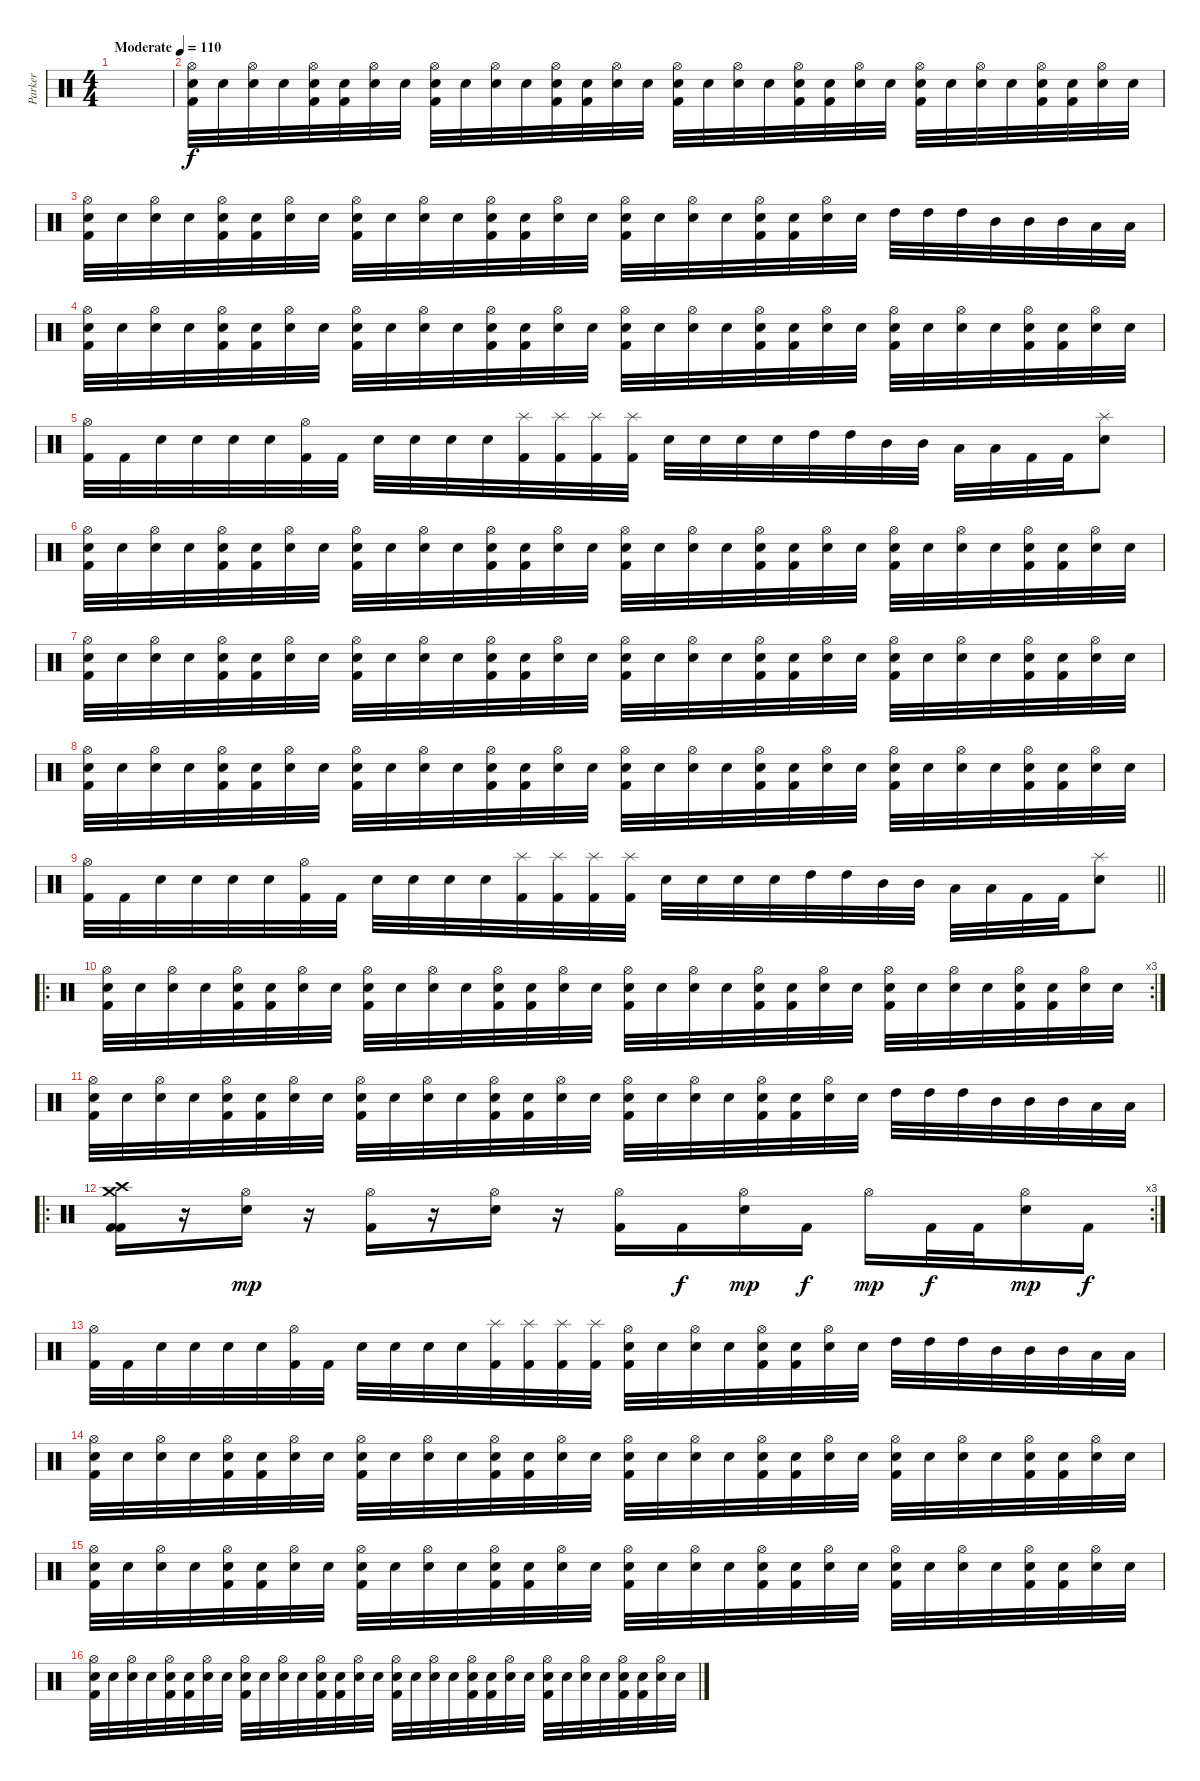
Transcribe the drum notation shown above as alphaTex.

\track ("Parker" "Parker") {instrument percussion}
\staff {score}
\articulation defaults
\ts (4 4)
\tempo (110 "Moderate")
\clef neutral
\ks c
|
("Hi-Hat (open)" "Kick (hit) 2" "Snare (hit)").32 "Snare (hit)".32 ("Hi-Hat (open)" "Electric Snare (hit)").32 "Snare (hit)".32 ("Hi-Hat (open)" "Kick (hit) 2" "Snare (hit)").32 ("Kick (hit) 2" "Snare (hit)").32 ("Hi-Hat (open)" "Electric Snare (hit)").32 "Snare (hit)".32 ("Hi-Hat (open)" "Kick (hit) 2" "Snare (hit)").32 "Snare (hit)".32 ("Hi-Hat (open)" "Electric Snare (hit)").32 "Snare (hit)".32 ("Hi-Hat (open)" "Kick (hit) 2" "Snare (hit)").32 ("Kick (hit) 2" "Snare (hit)").32 ("Hi-Hat (open)" "Electric Snare (hit)").32 "Snare (hit)".32 ("Hi-Hat (open)" "Kick (hit) 2" "Snare (hit)").32 "Snare (hit)".32 ("Hi-Hat (open)" "Electric Snare (hit)").32 "Snare (hit)".32 ("Hi-Hat (open)" "Kick (hit) 2" "Snare (hit)").32 ("Kick (hit) 2" "Snare (hit)").32 ("Hi-Hat (open)" "Electric Snare (hit)").32 "Snare (hit)".32 ("Hi-Hat (open)" "Kick (hit) 2" "Snare (hit)").32 "Snare (hit)".32 ("Hi-Hat (open)" "Electric Snare (hit)").32 "Snare (hit)".32 ("Hi-Hat (open)" "Kick (hit) 2" "Snare (hit)").32 ("Kick (hit) 2" "Snare (hit)").32 ("Hi-Hat (open)" "Electric Snare (hit)").32 "Snare (hit)".32 |
("Hi-Hat (open)" "Kick (hit) 2" "Snare (hit)").32 "Snare (hit)".32 ("Hi-Hat (open)" "Electric Snare (hit)").32 "Snare (hit)".32 ("Hi-Hat (open)" "Kick (hit) 2" "Snare (hit)").32 ("Kick (hit) 2" "Snare (hit)").32 ("Hi-Hat (open)" "Electric Snare (hit)").32 "Snare (hit)".32 ("Hi-Hat (open)" "Kick (hit) 2" "Snare (hit)").32 "Snare (hit)".32 ("Hi-Hat (open)" "Electric Snare (hit)").32 "Snare (hit)".32 ("Hi-Hat (open)" "Kick (hit) 2" "Snare (hit)").32 ("Kick (hit) 2" "Snare (hit)").32 ("Hi-Hat (open)" "Electric Snare (hit)").32 "Snare (hit)".32 ("Hi-Hat (open)" "Kick (hit) 2" "Snare (hit)").32 "Snare (hit)".32 ("Hi-Hat (open)" "Electric Snare (hit)").32 "Snare (hit)".32 ("Hi-Hat (open)" "Kick (hit) 2" "Snare (hit)").32 ("Kick (hit) 2" "Snare (hit)").32 ("Hi-Hat (open)" "Electric Snare (hit)").32 "Snare (hit)".32 "High Tom (hit)".32 "High Tom (hit)".32 "High Tom (hit)".32 "Mid Tom (hit)".32 "Mid Tom (hit)".32 "Mid Tom (hit)".32 "Low Tom (hit)".32 "Low Tom (hit)".32 |
("Hi-Hat (open)" "Kick (hit) 2" "Snare (hit)").32 "Snare (hit)".32 ("Hi-Hat (open)" "Electric Snare (hit)").32 "Snare (hit)".32 ("Hi-Hat (open)" "Kick (hit) 2" "Snare (hit)").32 ("Kick (hit) 2" "Snare (hit)").32 ("Hi-Hat (open)" "Electric Snare (hit)").32 "Snare (hit)".32 ("Hi-Hat (open)" "Kick (hit) 2" "Snare (hit)").32 "Snare (hit)".32 ("Hi-Hat (open)" "Electric Snare (hit)").32 "Snare (hit)".32 ("Hi-Hat (open)" "Kick (hit) 2" "Snare (hit)").32 ("Kick (hit) 2" "Snare (hit)").32 ("Hi-Hat (open)" "Electric Snare (hit)").32 "Snare (hit)".32 ("Hi-Hat (open)" "Kick (hit) 2" "Snare (hit)").32 "Snare (hit)".32 ("Hi-Hat (open)" "Electric Snare (hit)").32 "Snare (hit)".32 ("Hi-Hat (open)" "Kick (hit) 2" "Snare (hit)").32 ("Kick (hit) 2" "Snare (hit)").32 ("Hi-Hat (open)" "Electric Snare (hit)").32 "Snare (hit)".32 ("Hi-Hat (open)" "Kick (hit) 2" "Snare (hit)").32 "Snare (hit)".32 ("Hi-Hat (open)" "Electric Snare (hit)").32 "Snare (hit)".32 ("Hi-Hat (open)" "Kick (hit) 2" "Snare (hit)").32 ("Kick (hit) 2" "Snare (hit)").32 ("Hi-Hat (open)" "Electric Snare (hit)").32 "Snare (hit)".32 |
("Hi-Hat (open)" "Kick (hit) 2").32 "Kick (hit) 2".32 "Electric Snare (hit)".32 "Electric Snare (hit)".32 "Electric Snare (hit)".32 "Electric Snare (hit)".32 ("Hi-Hat (open)" "Kick (hit) 2").32 "Kick (hit) 2".32 "Electric Snare (hit)".32 "Electric Snare (hit)".32 "Electric Snare (hit)".32 "Electric Snare (hit)".32 ("Splash (hit)" "Kick (hit) 2").32 ("Splash (hit)" "Kick (hit) 2").32 ("Splash (hit)" "Kick (hit) 2").32 ("Splash (hit)" "Kick (hit) 2").32 "Electric Snare (hit)".32 "Electric Snare (hit)".32 "Electric Snare (hit)".32 "Electric Snare (hit)".32 "High Tom (hit)".32 "High Tom (hit)".32 "Mid Tom (hit)".32 "Mid Tom (hit)".32 "Low Tom (hit)".32 "Low Tom (hit)".32 "Kick (hit) 2".32 "Kick (hit) 2".32 ("Splash (hit)" "Electric Snare (hit)").8 |
("Hi-Hat (open)" "Kick (hit) 2" "Snare (hit)").32 "Snare (hit)".32 ("Hi-Hat (open)" "Electric Snare (hit)").32 "Snare (hit)".32 ("Hi-Hat (open)" "Kick (hit) 2" "Snare (hit)").32 ("Kick (hit) 2" "Snare (hit)").32 ("Hi-Hat (open)" "Electric Snare (hit)").32 "Snare (hit)".32 ("Hi-Hat (open)" "Kick (hit) 2" "Snare (hit)").32 "Snare (hit)".32 ("Hi-Hat (open)" "Electric Snare (hit)").32 "Snare (hit)".32 ("Hi-Hat (open)" "Kick (hit) 2" "Snare (hit)").32 ("Kick (hit) 2" "Snare (hit)").32 ("Hi-Hat (open)" "Electric Snare (hit)").32 "Snare (hit)".32 ("Hi-Hat (open)" "Kick (hit) 2" "Snare (hit)").32 "Snare (hit)".32 ("Hi-Hat (open)" "Electric Snare (hit)").32 "Snare (hit)".32 ("Hi-Hat (open)" "Kick (hit) 2" "Snare (hit)").32 ("Kick (hit) 2" "Snare (hit)").32 ("Hi-Hat (open)" "Electric Snare (hit)").32 "Snare (hit)".32 ("Hi-Hat (open)" "Kick (hit) 2" "Snare (hit)").32 "Snare (hit)".32 ("Hi-Hat (open)" "Electric Snare (hit)").32 "Snare (hit)".32 ("Hi-Hat (open)" "Kick (hit) 2" "Snare (hit)").32 ("Kick (hit) 2" "Snare (hit)").32 ("Hi-Hat (open)" "Electric Snare (hit)").32 "Snare (hit)".32 |
("Hi-Hat (open)" "Kick (hit) 2" "Snare (hit)").32 "Snare (hit)".32 ("Hi-Hat (open)" "Electric Snare (hit)").32 "Snare (hit)".32 ("Hi-Hat (open)" "Kick (hit) 2" "Snare (hit)").32 ("Kick (hit) 2" "Snare (hit)").32 ("Hi-Hat (open)" "Electric Snare (hit)").32 "Snare (hit)".32 ("Hi-Hat (open)" "Kick (hit) 2" "Snare (hit)").32 "Snare (hit)".32 ("Hi-Hat (open)" "Electric Snare (hit)").32 "Snare (hit)".32 ("Hi-Hat (open)" "Kick (hit) 2" "Snare (hit)").32 ("Kick (hit) 2" "Snare (hit)").32 ("Hi-Hat (open)" "Electric Snare (hit)").32 "Snare (hit)".32 ("Hi-Hat (open)" "Kick (hit) 2" "Snare (hit)").32 "Snare (hit)".32 ("Hi-Hat (open)" "Electric Snare (hit)").32 "Snare (hit)".32 ("Hi-Hat (open)" "Kick (hit) 2" "Snare (hit)").32 ("Kick (hit) 2" "Snare (hit)").32 ("Hi-Hat (open)" "Electric Snare (hit)").32 "Snare (hit)".32 ("Hi-Hat (open)" "Kick (hit) 2" "Snare (hit)").32 "Snare (hit)".32 ("Hi-Hat (open)" "Electric Snare (hit)").32 "Snare (hit)".32 ("Hi-Hat (open)" "Kick (hit) 2" "Snare (hit)").32 ("Kick (hit) 2" "Snare (hit)").32 ("Hi-Hat (open)" "Electric Snare (hit)").32 "Snare (hit)".32 |
("Hi-Hat (open)" "Kick (hit) 2" "Snare (hit)").32 "Snare (hit)".32 ("Hi-Hat (open)" "Electric Snare (hit)").32 "Snare (hit)".32 ("Hi-Hat (open)" "Kick (hit) 2" "Snare (hit)").32 ("Kick (hit) 2" "Snare (hit)").32 ("Hi-Hat (open)" "Electric Snare (hit)").32 "Snare (hit)".32 ("Hi-Hat (open)" "Kick (hit) 2" "Snare (hit)").32 "Snare (hit)".32 ("Hi-Hat (open)" "Electric Snare (hit)").32 "Snare (hit)".32 ("Hi-Hat (open)" "Kick (hit) 2" "Snare (hit)").32 ("Kick (hit) 2" "Snare (hit)").32 ("Hi-Hat (open)" "Electric Snare (hit)").32 "Snare (hit)".32 ("Hi-Hat (open)" "Kick (hit) 2" "Snare (hit)").32 "Snare (hit)".32 ("Hi-Hat (open)" "Electric Snare (hit)").32 "Snare (hit)".32 ("Hi-Hat (open)" "Kick (hit) 2" "Snare (hit)").32 ("Kick (hit) 2" "Snare (hit)").32 ("Hi-Hat (open)" "Electric Snare (hit)").32 "Snare (hit)".32 ("Hi-Hat (open)" "Kick (hit) 2" "Snare (hit)").32 "Snare (hit)".32 ("Hi-Hat (open)" "Electric Snare (hit)").32 "Snare (hit)".32 ("Hi-Hat (open)" "Kick (hit) 2" "Snare (hit)").32 ("Kick (hit) 2" "Snare (hit)").32 ("Hi-Hat (open)" "Electric Snare (hit)").32 "Snare (hit)".32 |
\barLineRight lightlight
("Hi-Hat (open)" "Kick (hit) 2").32 "Kick (hit) 2".32 "Electric Snare (hit)".32 "Electric Snare (hit)".32 "Electric Snare (hit)".32 "Electric Snare (hit)".32 ("Hi-Hat (open)" "Kick (hit) 2").32 "Kick (hit) 2".32 "Electric Snare (hit)".32 "Electric Snare (hit)".32 "Electric Snare (hit)".32 "Electric Snare (hit)".32 ("Splash (hit)" "Kick (hit) 2").32 ("Splash (hit)" "Kick (hit) 2").32 ("Splash (hit)" "Kick (hit) 2").32 ("Splash (hit)" "Kick (hit) 2").32 "Electric Snare (hit)".32 "Electric Snare (hit)".32 "Electric Snare (hit)".32 "Electric Snare (hit)".32 "High Tom (hit)".32 "High Tom (hit)".32 "Mid Tom (hit)".32 "Mid Tom (hit)".32 "Low Tom (hit)".32 "Low Tom (hit)".32 "Kick (hit) 2".32 "Kick (hit) 2".32 ("Splash (hit)" "Electric Snare (hit)").8 |
\ro
\rc 3
("Hi-Hat (open)" "Kick (hit) 2" "Snare (hit)").32 "Snare (hit)".32 ("Hi-Hat (open)" "Electric Snare (hit)").32 "Snare (hit)".32 ("Hi-Hat (open)" "Kick (hit) 2" "Snare (hit)").32 ("Kick (hit) 2" "Snare (hit)").32 ("Hi-Hat (open)" "Electric Snare (hit)").32 "Snare (hit)".32 ("Hi-Hat (open)" "Kick (hit) 2" "Snare (hit)").32 "Snare (hit)".32 ("Hi-Hat (open)" "Electric Snare (hit)").32 "Snare (hit)".32 ("Hi-Hat (open)" "Kick (hit) 2" "Snare (hit)").32 ("Kick (hit) 2" "Snare (hit)").32 ("Hi-Hat (open)" "Electric Snare (hit)").32 "Snare (hit)".32 ("Hi-Hat (open)" "Kick (hit) 2" "Snare (hit)").32 "Snare (hit)".32 ("Hi-Hat (open)" "Electric Snare (hit)").32 "Snare (hit)".32 ("Hi-Hat (open)" "Kick (hit) 2" "Snare (hit)").32 ("Kick (hit) 2" "Snare (hit)").32 ("Hi-Hat (open)" "Electric Snare (hit)").32 "Snare (hit)".32 ("Hi-Hat (open)" "Kick (hit) 2" "Snare (hit)").32 "Snare (hit)".32 ("Hi-Hat (open)" "Electric Snare (hit)").32 "Snare (hit)".32 ("Hi-Hat (open)" "Kick (hit) 2" "Snare (hit)").32 ("Kick (hit) 2" "Snare (hit)").32 ("Hi-Hat (open)" "Electric Snare (hit)").32 "Snare (hit)".32 |
("Hi-Hat (open)" "Kick (hit) 2" "Snare (hit)").32 "Snare (hit)".32 ("Hi-Hat (open)" "Electric Snare (hit)").32 "Snare (hit)".32 ("Hi-Hat (open)" "Kick (hit) 2" "Snare (hit)").32 ("Kick (hit) 2" "Snare (hit)").32 ("Hi-Hat (open)" "Electric Snare (hit)").32 "Snare (hit)".32 ("Hi-Hat (open)" "Kick (hit) 2" "Snare (hit)").32 "Snare (hit)".32 ("Hi-Hat (open)" "Electric Snare (hit)").32 "Snare (hit)".32 ("Hi-Hat (open)" "Kick (hit) 2" "Snare (hit)").32 ("Kick (hit) 2" "Snare (hit)").32 ("Hi-Hat (open)" "Electric Snare (hit)").32 "Snare (hit)".32 ("Hi-Hat (open)" "Kick (hit) 2" "Snare (hit)").32 "Snare (hit)".32 ("Hi-Hat (open)" "Electric Snare (hit)").32 "Snare (hit)".32 ("Hi-Hat (open)" "Kick (hit) 2" "Snare (hit)").32 ("Kick (hit) 2" "Snare (hit)").32 ("Hi-Hat (open)" "Electric Snare (hit)").32 "Snare (hit)".32 "High Tom (hit)".32 "High Tom (hit)".32 "High Tom (hit)".32 "Mid Tom (hit)".32 "Mid Tom (hit)".32 "Mid Tom (hit)".32 "Low Tom (hit)".32 "Low Tom (hit)".32 |
\ro
\rc 3
("Crash medium (hit)" "Crash high (hit)" "Kick (hit) 2" "Kick (hit) 2").16 r.16 ("Hi-Hat (open)" "Electric Snare (hit)").16{dy mp} r.16 ("Hi-Hat (open)" "Kick (hit) 2").16 r.16 ("Hi-Hat (open)" "Electric Snare (hit)").16 r.16 ("Hi-Hat (open)" "Kick (hit) 2").16 "Kick (hit) 2".16{dy f} ("Hi-Hat (open)" "Electric Snare (hit)").16{dy mp} "Kick (hit) 2".16{dy f} "Hi-Hat (open)".16{dy mp} "Kick (hit) 2".32{dy f} "Kick (hit) 2".32 ("Hi-Hat (open)" "Electric Snare (hit)").16{dy mp} "Kick (hit) 2".16{dy f} |
("Hi-Hat (open)" "Kick (hit) 2").32 "Kick (hit) 2".32 "Electric Snare (hit)".32 "Electric Snare (hit)".32 "Electric Snare (hit)".32 "Electric Snare (hit)".32 ("Hi-Hat (open)" "Kick (hit) 2").32 "Kick (hit) 2".32 "Electric Snare (hit)".32 "Electric Snare (hit)".32 "Electric Snare (hit)".32 "Electric Snare (hit)".32 ("Splash (hit)" "Kick (hit) 2").32 ("Splash (hit)" "Kick (hit) 2").32 ("Splash (hit)" "Kick (hit) 2").32 ("Splash (hit)" "Kick (hit) 2").32 ("Hi-Hat (open)" "Kick (hit) 2" "Snare (hit)").32 "Snare (hit)".32 ("Hi-Hat (open)" "Electric Snare (hit)").32 "Snare (hit)".32 ("Hi-Hat (open)" "Kick (hit) 2" "Snare (hit)").32 ("Kick (hit) 2" "Snare (hit)").32 ("Hi-Hat (open)" "Electric Snare (hit)").32 "Snare (hit)".32 "High Tom (hit)".32 "High Tom (hit)".32 "High Tom (hit)".32 "Mid Tom (hit)".32 "Mid Tom (hit)".32 "Mid Tom (hit)".32 "Low Tom (hit)".32 "Low Tom (hit)".32 |
("Hi-Hat (open)" "Kick (hit) 2" "Snare (hit)").32 "Snare (hit)".32 ("Hi-Hat (open)" "Electric Snare (hit)").32 "Snare (hit)".32 ("Hi-Hat (open)" "Kick (hit) 2" "Snare (hit)").32 ("Kick (hit) 2" "Snare (hit)").32 ("Hi-Hat (open)" "Electric Snare (hit)").32 "Snare (hit)".32 ("Hi-Hat (open)" "Kick (hit) 2" "Snare (hit)").32 "Snare (hit)".32 ("Hi-Hat (open)" "Electric Snare (hit)").32 "Snare (hit)".32 ("Hi-Hat (open)" "Kick (hit) 2" "Snare (hit)").32 ("Kick (hit) 2" "Snare (hit)").32 ("Hi-Hat (open)" "Electric Snare (hit)").32 "Snare (hit)".32 ("Hi-Hat (open)" "Kick (hit) 2" "Snare (hit)").32 "Snare (hit)".32 ("Hi-Hat (open)" "Electric Snare (hit)").32 "Snare (hit)".32 ("Hi-Hat (open)" "Kick (hit) 2" "Snare (hit)").32 ("Kick (hit) 2" "Snare (hit)").32 ("Hi-Hat (open)" "Electric Snare (hit)").32 "Snare (hit)".32 ("Hi-Hat (open)" "Kick (hit) 2" "Snare (hit)").32 "Snare (hit)".32 ("Hi-Hat (open)" "Electric Snare (hit)").32 "Snare (hit)".32 ("Hi-Hat (open)" "Kick (hit) 2" "Snare (hit)").32 ("Kick (hit) 2" "Snare (hit)").32 ("Hi-Hat (open)" "Electric Snare (hit)").32 "Snare (hit)".32 |
("Hi-Hat (open)" "Kick (hit) 2" "Snare (hit)").32 "Snare (hit)".32 ("Hi-Hat (open)" "Electric Snare (hit)").32 "Snare (hit)".32 ("Hi-Hat (open)" "Kick (hit) 2" "Snare (hit)").32 ("Kick (hit) 2" "Snare (hit)").32 ("Hi-Hat (open)" "Electric Snare (hit)").32 "Snare (hit)".32 ("Hi-Hat (open)" "Kick (hit) 2" "Snare (hit)").32 "Snare (hit)".32 ("Hi-Hat (open)" "Electric Snare (hit)").32 "Snare (hit)".32 ("Hi-Hat (open)" "Kick (hit) 2" "Snare (hit)").32 ("Kick (hit) 2" "Snare (hit)").32 ("Hi-Hat (open)" "Electric Snare (hit)").32 "Snare (hit)".32 ("Hi-Hat (open)" "Kick (hit) 2" "Snare (hit)").32 "Snare (hit)".32 ("Hi-Hat (open)" "Electric Snare (hit)").32 "Snare (hit)".32 ("Hi-Hat (open)" "Kick (hit) 2" "Snare (hit)").32 ("Kick (hit) 2" "Snare (hit)").32 ("Hi-Hat (open)" "Electric Snare (hit)").32 "Snare (hit)".32 ("Hi-Hat (open)" "Kick (hit) 2" "Snare (hit)").32 "Snare (hit)".32 ("Hi-Hat (open)" "Electric Snare (hit)").32 "Snare (hit)".32 ("Hi-Hat (open)" "Kick (hit) 2" "Snare (hit)").32 ("Kick (hit) 2" "Snare (hit)").32 ("Hi-Hat (open)" "Electric Snare (hit)").32 "Snare (hit)".32 |
("Hi-Hat (open)" "Kick (hit) 2" "Snare (hit)").32 "Snare (hit)".32 ("Hi-Hat (open)" "Electric Snare (hit)").32 "Snare (hit)".32 ("Hi-Hat (open)" "Kick (hit) 2" "Snare (hit)").32 ("Kick (hit) 2" "Snare (hit)").32 ("Hi-Hat (open)" "Electric Snare (hit)").32 "Snare (hit)".32 ("Hi-Hat (open)" "Kick (hit) 2" "Snare (hit)").32 "Snare (hit)".32 ("Hi-Hat (open)" "Electric Snare (hit)").32 "Snare (hit)".32 ("Hi-Hat (open)" "Kick (hit) 2" "Snare (hit)").32 ("Kick (hit) 2" "Snare (hit)").32 ("Hi-Hat (open)" "Electric Snare (hit)").32 "Snare (hit)".32 ("Hi-Hat (open)" "Kick (hit) 2" "Snare (hit)").32 "Snare (hit)".32 ("Hi-Hat (open)" "Electric Snare (hit)").32 "Snare (hit)".32 ("Hi-Hat (open)" "Kick (hit) 2" "Snare (hit)").32 ("Kick (hit) 2" "Snare (hit)").32 ("Hi-Hat (open)" "Electric Snare (hit)").32 "Snare (hit)".32 ("Hi-Hat (open)" "Kick (hit) 2" "Snare (hit)").32 "Snare (hit)".32 ("Hi-Hat (open)" "Electric Snare (hit)").32 "Snare (hit)".32 ("Hi-Hat (open)" "Kick (hit) 2" "Snare (hit)").32 ("Kick (hit) 2" "Snare (hit)").32 ("Hi-Hat (open)" "Electric Snare (hit)").32 "Snare (hit)".32
